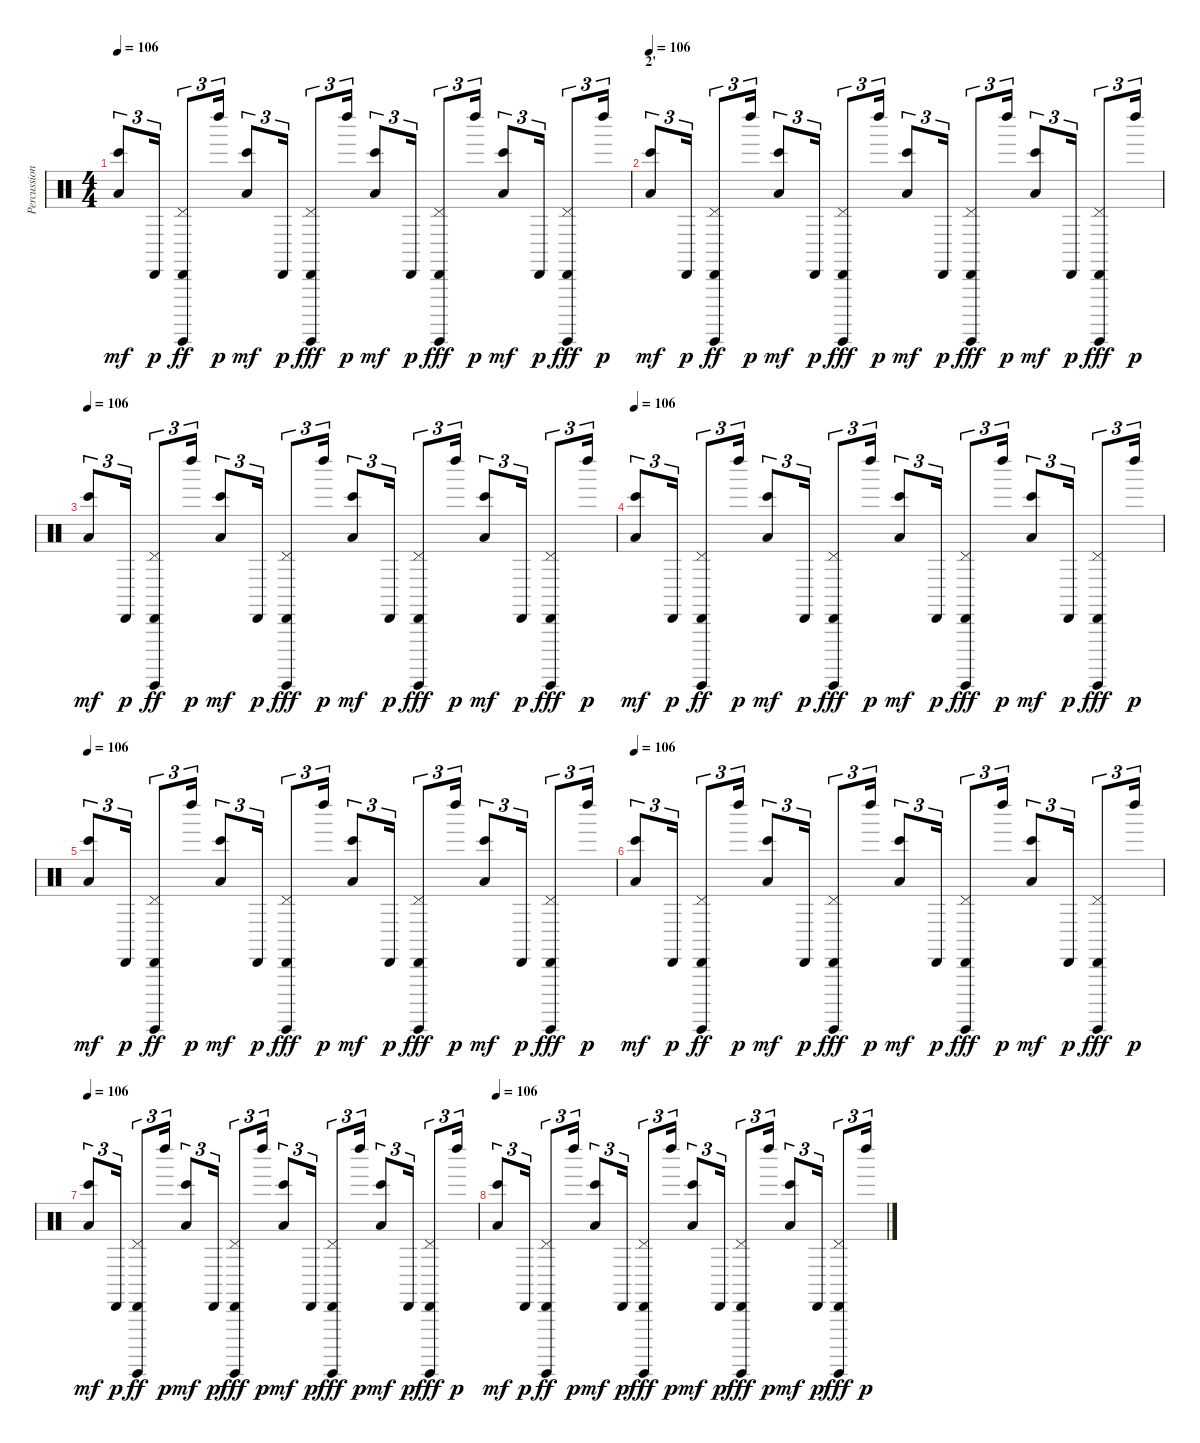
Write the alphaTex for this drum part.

\track ("Percussions" "Percussion") {instrument percussion}
\staff {score}
\articulation defaults
\ts (4 4)
\tempo 106
\clef neutral
\ks c
("Bongo High (hit)" "Low Floor Tom (hit)").8{tu (3 2) dy mf} "Cabasa (hit)".16{tu (3 2) dy p} ("Pedal Hi-Hat (hit)" "Cabasa (hit)" "Guiro (hit)").8{tu (3 2) dy ff} "Left Maraca (hit)".16{tu (3 2) dy p} ("Bongo High (hit)" "Low Floor Tom (hit)").8{tu (3 2) dy mf} "Cabasa (hit)".16{tu (3 2) dy p} ("Pedal Hi-Hat (hit)" "Cabasa (hit)" "Guiro (hit)").8{tu (3 2) dy fff} "Left Maraca (hit)".16{tu (3 2) dy p} ("Bongo High (hit)" "Low Floor Tom (hit)").8{tu (3 2) dy mf} "Cabasa (hit)".16{tu (3 2) dy p} ("Pedal Hi-Hat (hit)" "Cabasa (hit)" "Guiro (hit)").8{tu (3 2) dy fff} "Left Maraca (hit)".16{tu (3 2) dy p} ("Bongo High (hit)" "Low Floor Tom (hit)").8{tu (3 2) dy mf} "Cabasa (hit)".16{tu (3 2) dy p} ("Pedal Hi-Hat (hit)" "Cabasa (hit)" "Guiro (hit)").8{tu (3 2) dy fff} "Left Maraca (hit)".16{tu (3 2) dy p} |
\section ("" "2'")
\tempo 106
("Bongo High (hit)" "Low Floor Tom (hit)").8{tu (3 2) dy mf} "Cabasa (hit)".16{tu (3 2) dy p} ("Pedal Hi-Hat (hit)" "Cabasa (hit)" "Guiro (hit)").8{tu (3 2) dy ff} "Left Maraca (hit)".16{tu (3 2) dy p} ("Bongo High (hit)" "Low Floor Tom (hit)").8{tu (3 2) dy mf} "Cabasa (hit)".16{tu (3 2) dy p} ("Pedal Hi-Hat (hit)" "Cabasa (hit)" "Guiro (hit)").8{tu (3 2) dy fff} "Left Maraca (hit)".16{tu (3 2) dy p} ("Bongo High (hit)" "Low Floor Tom (hit)").8{tu (3 2) dy mf} "Cabasa (hit)".16{tu (3 2) dy p} ("Pedal Hi-Hat (hit)" "Cabasa (hit)" "Guiro (hit)").8{tu (3 2) dy fff} "Left Maraca (hit)".16{tu (3 2) dy p} ("Bongo High (hit)" "Low Floor Tom (hit)").8{tu (3 2) dy mf} "Cabasa (hit)".16{tu (3 2) dy p} ("Pedal Hi-Hat (hit)" "Cabasa (hit)" "Guiro (hit)").8{tu (3 2) dy fff} "Left Maraca (hit)".16{tu (3 2) dy p} |
\tempo 106
("Bongo High (hit)" "Low Floor Tom (hit)").8{tu (3 2) dy mf} "Cabasa (hit)".16{tu (3 2) dy p} ("Pedal Hi-Hat (hit)" "Cabasa (hit)" "Guiro (hit)").8{tu (3 2) dy ff} "Left Maraca (hit)".16{tu (3 2) dy p} ("Bongo High (hit)" "Low Floor Tom (hit)").8{tu (3 2) dy mf} "Cabasa (hit)".16{tu (3 2) dy p} ("Pedal Hi-Hat (hit)" "Cabasa (hit)" "Guiro (hit)").8{tu (3 2) dy fff} "Left Maraca (hit)".16{tu (3 2) dy p} ("Bongo High (hit)" "Low Floor Tom (hit)").8{tu (3 2) dy mf} "Cabasa (hit)".16{tu (3 2) dy p} ("Pedal Hi-Hat (hit)" "Cabasa (hit)" "Guiro (hit)").8{tu (3 2) dy fff} "Left Maraca (hit)".16{tu (3 2) dy p} ("Bongo High (hit)" "Low Floor Tom (hit)").8{tu (3 2) dy mf} "Cabasa (hit)".16{tu (3 2) dy p} ("Pedal Hi-Hat (hit)" "Cabasa (hit)" "Guiro (hit)").8{tu (3 2) dy fff} "Left Maraca (hit)".16{tu (3 2) dy p} |
\tempo 106
("Bongo High (hit)" "Low Floor Tom (hit)").8{tu (3 2) dy mf} "Cabasa (hit)".16{tu (3 2) dy p} ("Pedal Hi-Hat (hit)" "Cabasa (hit)" "Guiro (hit)").8{tu (3 2) dy ff} "Left Maraca (hit)".16{tu (3 2) dy p} ("Bongo High (hit)" "Low Floor Tom (hit)").8{tu (3 2) dy mf} "Cabasa (hit)".16{tu (3 2) dy p} ("Pedal Hi-Hat (hit)" "Cabasa (hit)" "Guiro (hit)").8{tu (3 2) dy fff} "Left Maraca (hit)".16{tu (3 2) dy p} ("Bongo High (hit)" "Low Floor Tom (hit)").8{tu (3 2) dy mf} "Cabasa (hit)".16{tu (3 2) dy p} ("Pedal Hi-Hat (hit)" "Cabasa (hit)" "Guiro (hit)").8{tu (3 2) dy fff} "Left Maraca (hit)".16{tu (3 2) dy p} ("Bongo High (hit)" "Low Floor Tom (hit)").8{tu (3 2) dy mf} "Cabasa (hit)".16{tu (3 2) dy p} ("Pedal Hi-Hat (hit)" "Cabasa (hit)" "Guiro (hit)").8{tu (3 2) dy fff} "Left Maraca (hit)".16{tu (3 2) dy p} |
\tempo 106
("Bongo High (hit)" "Low Floor Tom (hit)").8{tu (3 2) dy mf} "Cabasa (hit)".16{tu (3 2) dy p} ("Pedal Hi-Hat (hit)" "Cabasa (hit)" "Guiro (hit)").8{tu (3 2) dy ff} "Left Maraca (hit)".16{tu (3 2) dy p} ("Bongo High (hit)" "Low Floor Tom (hit)").8{tu (3 2) dy mf} "Cabasa (hit)".16{tu (3 2) dy p} ("Pedal Hi-Hat (hit)" "Cabasa (hit)" "Guiro (hit)").8{tu (3 2) dy fff} "Left Maraca (hit)".16{tu (3 2) dy p} ("Bongo High (hit)" "Low Floor Tom (hit)").8{tu (3 2) dy mf} "Cabasa (hit)".16{tu (3 2) dy p} ("Pedal Hi-Hat (hit)" "Cabasa (hit)" "Guiro (hit)").8{tu (3 2) dy fff} "Left Maraca (hit)".16{tu (3 2) dy p} ("Bongo High (hit)" "Low Floor Tom (hit)").8{tu (3 2) dy mf} "Cabasa (hit)".16{tu (3 2) dy p} ("Pedal Hi-Hat (hit)" "Cabasa (hit)" "Guiro (hit)").8{tu (3 2) dy fff} "Left Maraca (hit)".16{tu (3 2) dy p} |
\tempo 106
("Bongo High (hit)" "Low Floor Tom (hit)").8{tu (3 2) dy mf} "Cabasa (hit)".16{tu (3 2) dy p} ("Pedal Hi-Hat (hit)" "Cabasa (hit)" "Guiro (hit)").8{tu (3 2) dy ff} "Left Maraca (hit)".16{tu (3 2) dy p} ("Bongo High (hit)" "Low Floor Tom (hit)").8{tu (3 2) dy mf} "Cabasa (hit)".16{tu (3 2) dy p} ("Pedal Hi-Hat (hit)" "Cabasa (hit)" "Guiro (hit)").8{tu (3 2) dy fff} "Left Maraca (hit)".16{tu (3 2) dy p} ("Bongo High (hit)" "Low Floor Tom (hit)").8{tu (3 2) dy mf} "Cabasa (hit)".16{tu (3 2) dy p} ("Pedal Hi-Hat (hit)" "Cabasa (hit)" "Guiro (hit)").8{tu (3 2) dy fff} "Left Maraca (hit)".16{tu (3 2) dy p} ("Bongo High (hit)" "Low Floor Tom (hit)").8{tu (3 2) dy mf} "Cabasa (hit)".16{tu (3 2) dy p} ("Pedal Hi-Hat (hit)" "Cabasa (hit)" "Guiro (hit)").8{tu (3 2) dy fff} "Left Maraca (hit)".16{tu (3 2) dy p} |
\tempo 106
("Bongo High (hit)" "Low Floor Tom (hit)").8{tu (3 2) dy mf} "Cabasa (hit)".16{tu (3 2) dy p} ("Pedal Hi-Hat (hit)" "Cabasa (hit)" "Guiro (hit)").8{tu (3 2) dy ff} "Left Maraca (hit)".16{tu (3 2) dy p} ("Bongo High (hit)" "Low Floor Tom (hit)").8{tu (3 2) dy mf} "Cabasa (hit)".16{tu (3 2) dy p} ("Pedal Hi-Hat (hit)" "Cabasa (hit)" "Guiro (hit)").8{tu (3 2) dy fff} "Left Maraca (hit)".16{tu (3 2) dy p} ("Bongo High (hit)" "Low Floor Tom (hit)").8{tu (3 2) dy mf} "Cabasa (hit)".16{tu (3 2) dy p} ("Pedal Hi-Hat (hit)" "Cabasa (hit)" "Guiro (hit)").8{tu (3 2) dy fff} "Left Maraca (hit)".16{tu (3 2) dy p} ("Bongo High (hit)" "Low Floor Tom (hit)").8{tu (3 2) dy mf} "Cabasa (hit)".16{tu (3 2) dy p} ("Pedal Hi-Hat (hit)" "Cabasa (hit)" "Guiro (hit)").8{tu (3 2) dy fff} "Left Maraca (hit)".16{tu (3 2) dy p} |
\tempo 106
("Bongo High (hit)" "Low Floor Tom (hit)").8{tu (3 2) dy mf} "Cabasa (hit)".16{tu (3 2) dy p} ("Pedal Hi-Hat (hit)" "Cabasa (hit)" "Guiro (hit)").8{tu (3 2) dy ff} "Left Maraca (hit)".16{tu (3 2) dy p} ("Bongo High (hit)" "Low Floor Tom (hit)").8{tu (3 2) dy mf} "Cabasa (hit)".16{tu (3 2) dy p} ("Pedal Hi-Hat (hit)" "Cabasa (hit)" "Guiro (hit)").8{tu (3 2) dy fff} "Left Maraca (hit)".16{tu (3 2) dy p} ("Bongo High (hit)" "Low Floor Tom (hit)").8{tu (3 2) dy mf} "Cabasa (hit)".16{tu (3 2) dy p} ("Pedal Hi-Hat (hit)" "Cabasa (hit)" "Guiro (hit)").8{tu (3 2) dy fff} "Left Maraca (hit)".16{tu (3 2) dy p} ("Bongo High (hit)" "Low Floor Tom (hit)").8{tu (3 2) dy mf} "Cabasa (hit)".16{tu (3 2) dy p} ("Pedal Hi-Hat (hit)" "Cabasa (hit)" "Guiro (hit)").8{tu (3 2) dy fff} "Left Maraca (hit)".16{tu (3 2) dy p}
